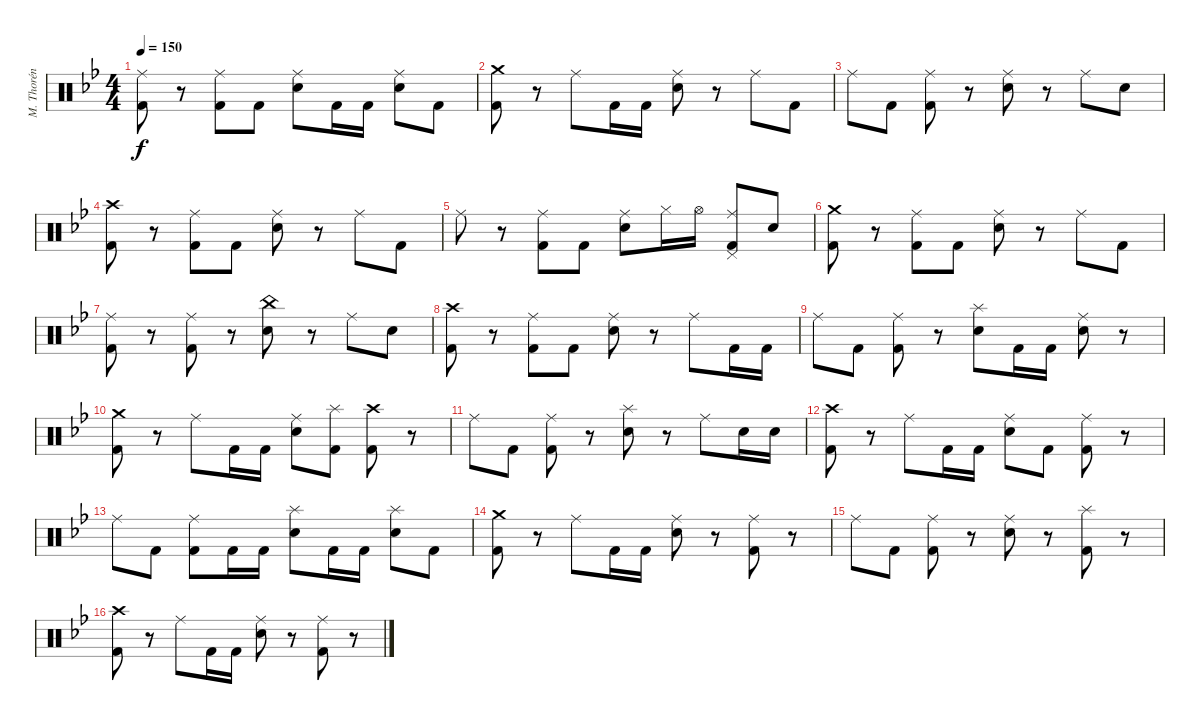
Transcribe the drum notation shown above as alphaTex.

\track ("M. Thorén (Drums)" "M. Thorén ") {instrument percussion}
\staff {score}
\articulation defaults
\ts (4 4)
\tempo 150
\clef neutral
\ks gminor
("Ride (middle)" "Kick (hit) 2").8{dy f} r.8 ("Ride (middle)" "Kick (hit) 2").8 "Kick (hit) 2".8 ("Ride (middle)" "Electric Snare (hit)").8 "Kick (hit) 2".16 "Kick (hit) 2".16 ("Ride (middle)" "Electric Snare (hit)").8 "Kick (hit) 2".8 |
("Crash medium (hit)" "Kick (hit) 2").8 r.8 "Ride (middle)".8 "Kick (hit) 2".16 "Kick (hit) 2".16 ("Ride (middle)" "Electric Snare (hit)").8 r.8 "Ride (middle)".8 "Kick (hit) 2".8 |
"Ride (middle)".8 "Kick (hit) 2".8 ("Ride (middle)" "Kick (hit) 2").8 r.8 ("Ride (middle)" "Electric Snare (hit)").8 r.8 "Ride (middle)".8 "Electric Snare (hit)".8 |
("Crash high (hit)" "Kick (hit) 2").8 r.8 ("Ride (middle)" "Kick (hit) 2").8 "Kick (hit) 2".8 ("Ride (middle)" "Electric Snare (hit)").8 r.8 "Ride (middle)".8 "Kick (hit) 2".8 |
"Ride (middle)".8 r.8 ("Ride (middle)" "Kick (hit) 2").8 "Kick (hit) 2".8 ("Ride (middle)" "Electric Snare (hit)").8 "Hi-Hat (closed)".16 "Hi-Hat (open)".16 ("Ride (middle)" "Pedal Hi-Hat (hit)" "Kick (hit) 2").8 "Electric Snare (hit)".8 |
("Crash medium (hit)" "Kick (hit) 2").8 r.8 ("Ride (middle)" "Kick (hit) 2").8 "Kick (hit) 2".8 ("Ride (middle)" "Electric Snare (hit)").8 r.8 "Ride (middle)".8 "Kick (hit) 2".8 |
("Ride (middle)" "Kick (hit) 2").8 r.8 ("Ride (middle)" "Kick (hit) 2").8 r.8 ("China (hit)" "Electric Snare (hit)").8 r.8 "Ride (middle)".8 "Electric Snare (hit)".8 |
("Crash high (hit)" "Kick (hit) 2").8 r.8 ("Ride (middle)" "Kick (hit) 2").8 "Kick (hit) 2".8 ("Ride (middle)" "Electric Snare (hit)").8 r.8 "Ride (middle)".8 "Kick (hit) 2".16 "Kick (hit) 2".16 |
"Ride (middle)".8 "Kick (hit) 2".8 ("Ride (middle)" "Kick (hit) 2").8 r.8 ("Splash (hit)" "Electric Snare (hit)").8 "Kick (hit) 2".16 "Kick (hit) 2".16 ("Ride (middle)" "Electric Snare (hit)").8 r.8 |
("Crash medium (hit)" "Kick (hit) 2").8 r.8 "Ride (middle)".8 "Kick (hit) 2".16 "Kick (hit) 2".16 ("Ride (middle)" "Electric Snare (hit)").8 ("Splash (hit)" "Kick (hit) 2").8 ("Crash high (hit)" "Kick (hit) 2").8 r.8 |
"Ride (middle)".8 "Kick (hit) 2".8 ("Ride (middle)" "Kick (hit) 2").8 r.8 ("Splash (hit)" "Electric Snare (hit)").8 r.8 "Ride (middle)".8 "Electric Snare (hit)".16 "Electric Snare (hit)".16 |
("Crash high (hit)" "Kick (hit) 2").8 r.8 "Ride (middle)".8 "Kick (hit) 2".16 "Kick (hit) 2".16 ("Ride (middle)" "Electric Snare (hit)").8 "Kick (hit) 2".8 ("Ride (middle)" "Kick (hit) 2").8 r.8 |
"Ride (middle)".8 "Kick (hit) 2".8 ("Ride (middle)" "Kick (hit) 2").8 "Kick (hit) 2".16 "Kick (hit) 2".16 ("Splash (hit)" "Electric Snare (hit)").8 "Kick (hit) 2".16 "Kick (hit) 2".16 ("Splash (hit)" "Electric Snare (hit)").8 "Kick (hit) 2".8 |
("Crash medium (hit)" "Kick (hit) 2").8 r.8 "Ride (middle)".8 "Kick (hit) 2".16 "Kick (hit) 2".16 ("Ride (middle)" "Electric Snare (hit)").8 r.8 ("Ride (middle)" "Kick (hit) 2").8 r.8 |
"Ride (middle)".8 "Kick (hit) 2".8 ("Ride (middle)" "Kick (hit) 2").8 r.8 ("Ride (middle)" "Electric Snare (hit)").8 r.8 ("Splash (hit)" "Kick (hit) 2").8 r.8 |
("Crash high (hit)" "Kick (hit) 2").8 r.8 "Ride (middle)".8 "Kick (hit) 2".16 "Kick (hit) 2".16 ("Ride (middle)" "Electric Snare (hit)").8 r.8 ("Ride (middle)" "Kick (hit) 2").8 r.8
